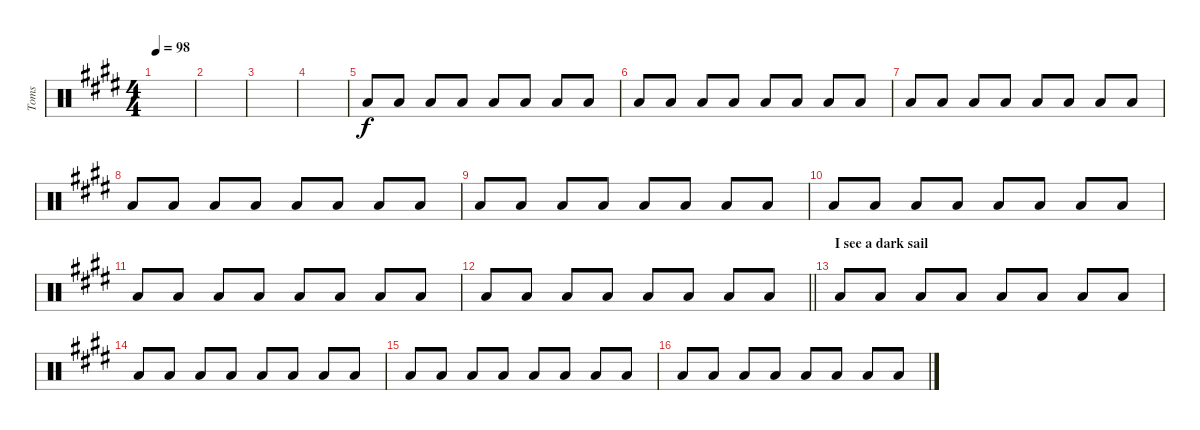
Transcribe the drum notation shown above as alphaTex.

\track ("Toms" "Toms") {instrument percussion}
\staff {score}
\articulation defaults
\ts (4 4)
\tempo 98
\clef neutral
\ks c#minor
|
|
|
|
"Low Tom (hit)".8 "Low Floor Tom (hit)".8 "Low Floor Tom (hit)".8 "Low Floor Tom (hit)".8 "Low Tom (hit)".8 "Low Floor Tom (hit)".8 "Low Floor Tom (hit)".8 "Low Floor Tom (hit)".8 |
"Low Tom (hit)".8 "Low Floor Tom (hit)".8 "Low Floor Tom (hit)".8 "Low Floor Tom (hit)".8 "Low Tom (hit)".8 "Low Floor Tom (hit)".8 "Low Floor Tom (hit)".8 "Low Floor Tom (hit)".8 |
"Low Tom (hit)".8 "Low Floor Tom (hit)".8 "Low Floor Tom (hit)".8 "Low Floor Tom (hit)".8 "Low Tom (hit)".8 "Low Floor Tom (hit)".8 "Low Floor Tom (hit)".8 "Low Floor Tom (hit)".8 |
"Low Tom (hit)".8 "Low Floor Tom (hit)".8 "Low Floor Tom (hit)".8 "Low Floor Tom (hit)".8 "Low Tom (hit)".8 "Low Floor Tom (hit)".8 "Low Floor Tom (hit)".8 "Low Floor Tom (hit)".8 |
"Low Tom (hit)".8 "Low Floor Tom (hit)".8 "Low Floor Tom (hit)".8 "Low Floor Tom (hit)".8 "Low Tom (hit)".8 "Low Floor Tom (hit)".8 "Low Floor Tom (hit)".8 "Low Floor Tom (hit)".8 |
"Low Tom (hit)".8 "Low Floor Tom (hit)".8 "Low Floor Tom (hit)".8 "Low Floor Tom (hit)".8 "Low Tom (hit)".8 "Low Floor Tom (hit)".8 "Low Floor Tom (hit)".8 "Low Floor Tom (hit)".8 |
"Low Tom (hit)".8 "Low Floor Tom (hit)".8 "Low Floor Tom (hit)".8 "Low Floor Tom (hit)".8 "Low Tom (hit)".8 "Low Floor Tom (hit)".8 "Low Floor Tom (hit)".8 "Low Floor Tom (hit)".8 |
\barLineRight lightlight "Low Tom (hit)".8 "Low Floor Tom (hit)".8 "Low Floor Tom (hit)".8 "Low Floor Tom (hit)".8 "Low Tom (hit)".8 "Low Floor Tom (hit)".8 "Low Floor Tom (hit)".8 "Low Floor Tom (hit)".8
|
\section ("" "I see a dark sail")
"Low Tom (hit)".8 "Low Floor Tom (hit)".8 "Low Floor Tom (hit)".8 "Low Floor Tom (hit)".8 "Low Tom (hit)".8 "Low Floor Tom (hit)".8 "Low Floor Tom (hit)".8 "Low Floor Tom (hit)".8 |
"Low Tom (hit)".8 "Low Floor Tom (hit)".8 "Low Floor Tom (hit)".8 "Low Floor Tom (hit)".8 "Low Tom (hit)".8 "Low Floor Tom (hit)".8 "Low Floor Tom (hit)".8 "Low Floor Tom (hit)".8 |
"Low Tom (hit)".8 "Low Floor Tom (hit)".8 "Low Floor Tom (hit)".8 "Low Floor Tom (hit)".8 "Low Tom (hit)".8 "Low Floor Tom (hit)".8 "Low Floor Tom (hit)".8 "Low Floor Tom (hit)".8 |
"Low Tom (hit)".8 "Low Floor Tom (hit)".8 "Low Floor Tom (hit)".8 "Low Floor Tom (hit)".8 "Low Tom (hit)".8 "Low Floor Tom (hit)".8 "Low Floor Tom (hit)".8 "Low Floor Tom (hit)".8
